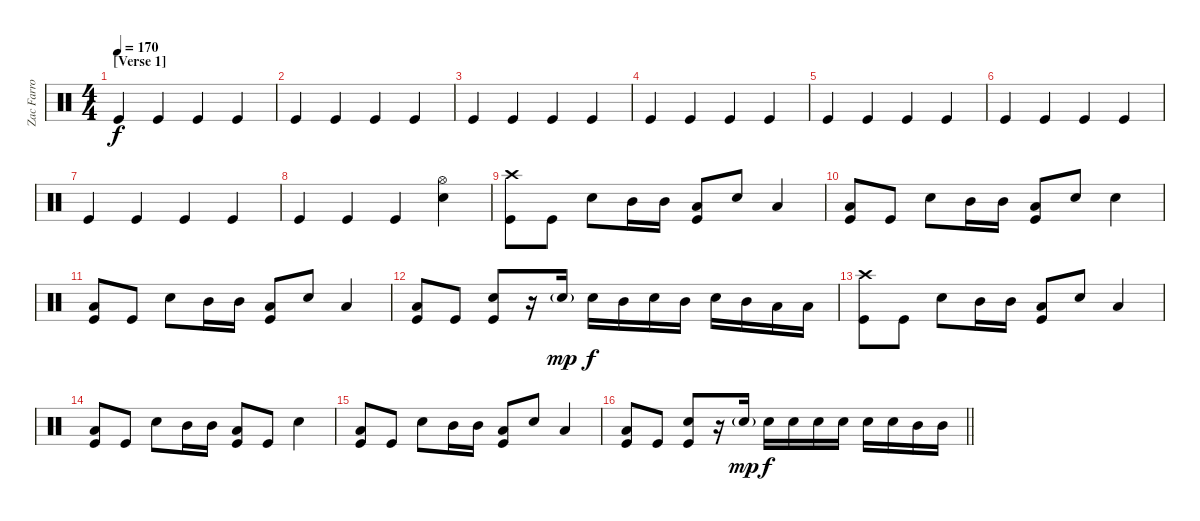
\track ("Zac Farro" "Zac Farro") {instrument percussion}
\staff {score}
\articulation defaults
\ts (4 4)
\section ("" "[Verse 1]")
\tempo 170
\clef neutral
\ks c "Kick (hit)".4{dy f} "Kick (hit)".4 "Kick (hit)".4 "Kick (hit)".4
|
"Kick (hit)".4 "Kick (hit)".4 "Kick (hit)".4 "Kick (hit)".4 |
"Kick (hit)".4 "Kick (hit)".4 "Kick (hit)".4 "Kick (hit)".4 |
"Kick (hit)".4 "Kick (hit)".4 "Kick (hit)".4 "Kick (hit)".4 |
"Kick (hit)".4 "Kick (hit)".4 "Kick (hit)".4 "Kick (hit)".4 |
"Kick (hit)".4 "Kick (hit)".4 "Kick (hit)".4 "Kick (hit)".4 |
"Kick (hit)".4 "Kick (hit)".4 "Kick (hit)".4 "Kick (hit)".4 |
"Kick (hit)".4 "Kick (hit)".4 "Kick (hit)".4 ("Hi-Hat (open)" "Electric Snare (hit)").4 |
("Crash high (hit)" "Kick (hit)").8 "Kick (hit)".8 "Electric Snare (hit)".8 "Mid Tom (hit)".16 "Mid Tom (hit)".16 ("Low Tom (hit)" "Kick (hit)").8 "Electric Snare (hit)".8 "Low Tom (hit)".4 |
("Low Tom (hit)" "Kick (hit)").8 "Kick (hit)".8 "Electric Snare (hit)".8 "Mid Tom (hit)".16 "Mid Tom (hit)".16 ("Low Tom (hit)" "Kick (hit)").8 "Electric Snare (hit)".8 "Electric Snare (hit)".4 |
("Low Tom (hit)" "Kick (hit)").8 "Kick (hit)".8 "Electric Snare (hit)".8 "Mid Tom (hit)".16 "Mid Tom (hit)".16 ("Low Tom (hit)" "Kick (hit)").8 "Electric Snare (hit)".8 "Low Tom (hit)".4 |
("Low Tom (hit)" "Kick (hit)").8 "Kick (hit)".8 ("Electric Snare (hit)" "Kick (hit)").8 r.16 "Electric Snare (hit)"{g}.16{dy mp} "Electric Snare (hit)".16{dy f} "Mid Tom (hit)".16 "Electric Snare (hit)".16 "Mid Tom (hit)".16 "Electric Snare (hit)".16 "Mid Tom (hit)".16 "Low Tom (hit)".16 "Low Tom (hit)".16 |
("Crash high (hit)" "Kick (hit)").8 "Kick (hit)".8 "Electric Snare (hit)".8 "Mid Tom (hit)".16 "Mid Tom (hit)".16 ("Low Tom (hit)" "Kick (hit)").8 "Electric Snare (hit)".8 "Low Tom (hit)".4 |
("Low Tom (hit)" "Kick (hit)").8 "Kick (hit)".8 "Electric Snare (hit)".8 "Mid Tom (hit)".16 "Mid Tom (hit)".16 ("Low Tom (hit)" "Kick (hit)").8 "Kick (hit)".8 "Electric Snare (hit)".4 |
("Low Tom (hit)" "Kick (hit)").8 "Kick (hit)".8 "Electric Snare (hit)".8 "Mid Tom (hit)".16 "Mid Tom (hit)".16 ("Low Tom (hit)" "Kick (hit)").8 "Electric Snare (hit)".8 "Low Tom (hit)".4 |
\barLineRight lightlight
("Low Tom (hit)" "Kick (hit)").8 "Kick (hit)".8 ("Electric Snare (hit)" "Kick (hit)").8 r.16 "Electric Snare (hit)"{g}.16{dy mp} "Electric Snare (hit)".16{dy f} "Electric Snare (hit)".16 "Electric Snare (hit)".16 "Electric Snare (hit)".16 "Electric Snare (hit)".16 "Electric Snare (hit)".16 "Mid Tom (hit)".16 "Mid Tom (hit)".16
